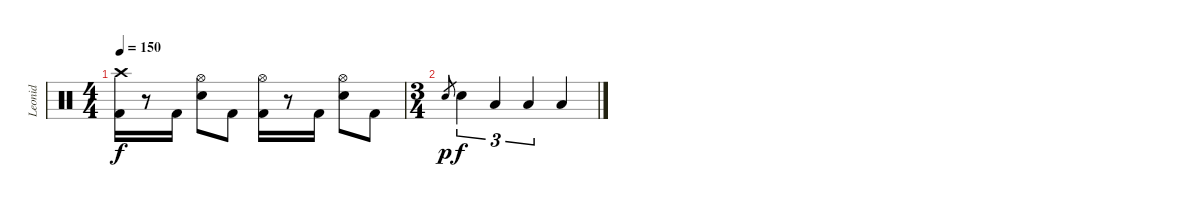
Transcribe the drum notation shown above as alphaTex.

\track ("Leonid" "Leonid") {instrument percussion}
\staff {score}
\articulation defaults
\ts (4 4)
\tempo 150
\clef neutral
\ks c
("Crash high (hit)" "Kick (hit) 2").16{dy f} r.8 "Kick (hit) 2".16 ("Hi-Hat (open)" "Electric Snare (hit)").8 "Kick (hit) 2".8 ("Hi-Hat (open)" "Kick (hit) 2").16 r.8 "Kick (hit) 2".16 ("Hi-Hat (open)" "Electric Snare (hit)").8 "Kick (hit) 2".8 |
\ts (3 4)
"Electric Snare (hit)".8{gr dy p} "Electric Snare (hit)".4{tu (3 2) dy f} "Low Tom (hit)".4{tu (3 2)} "Low Tom (hit)".4{tu (3 2)} "Low Floor Tom (hit)".4
